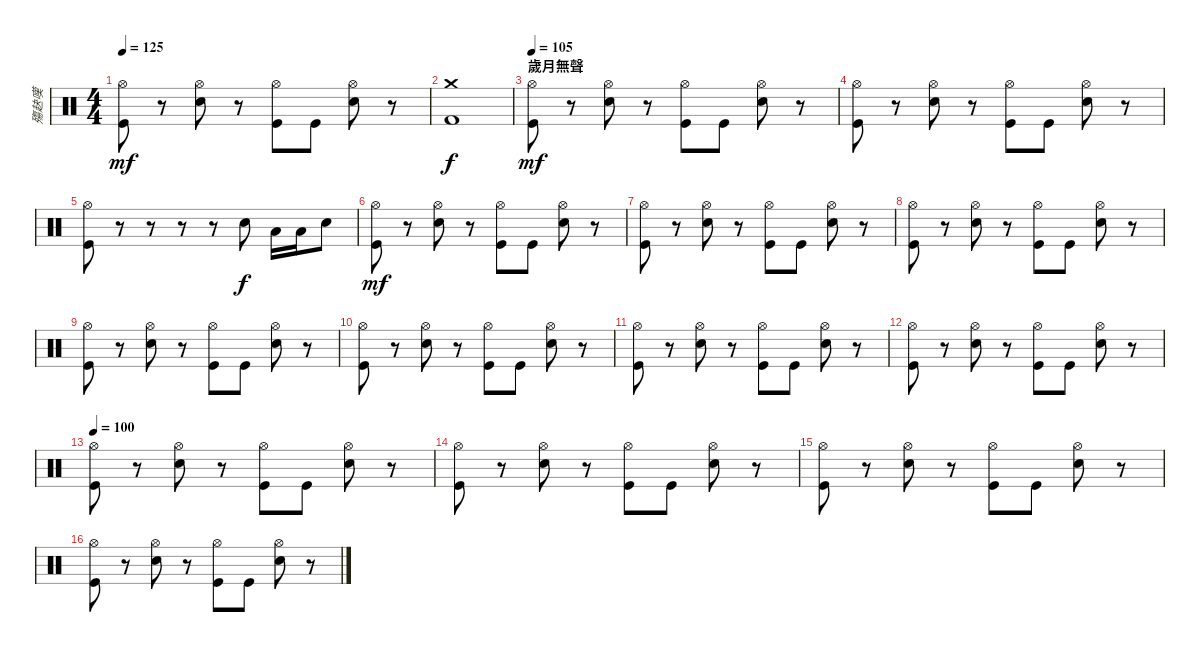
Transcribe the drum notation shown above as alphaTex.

\track ("殤赽嘆" "殤赽嘆") {instrument percussion}
\staff {score}
\articulation defaults
\ts (4 4)
\tempo 125
\clef neutral
\ks c
("Hi-Hat (open)" "Kick (hit)").8{dy mf} r.8 ("Hi-Hat (open)" "Snare (hit) 2").8 r.8 ("Hi-Hat (open)" "Kick (hit)").8 "Kick (hit)".8 ("Hi-Hat (open)" "Snare (hit) 2").8 r.8 |
("Crash medium (hit)" "Kick (hit) 2").1{dy f} |
\section ("" "歲月無聲")
\tempo 100
\tempo 105
("Hi-Hat (open)" "Kick (hit)").8{dy mf} r.8 ("Hi-Hat (open)" "Snare (hit) 2").8 r.8 ("Hi-Hat (open)" "Kick (hit)").8 "Kick (hit)".8 ("Hi-Hat (open)" "Snare (hit) 2").8 r.8 |
("Hi-Hat (open)" "Kick (hit)").8 r.8 ("Hi-Hat (open)" "Snare (hit) 2").8 r.8 ("Hi-Hat (open)" "Kick (hit)").8 "Kick (hit)".8 ("Hi-Hat (open)" "Snare (hit) 2").8 r.8 |
("Hi-Hat (open)" "Kick (hit)").8 r.8 r.8 r.8 r.8 "Snare (hit) 2".8{dy f} "Low Tom (hit)".16 "Low Tom (hit)".16 "Snare (hit) 2".8 |
("Hi-Hat (open)" "Kick (hit)").8{dy mf} r.8 ("Hi-Hat (open)" "Snare (hit) 2").8 r.8 ("Hi-Hat (open)" "Kick (hit)").8 "Kick (hit)".8 ("Hi-Hat (open)" "Snare (hit) 2").8 r.8 |
("Hi-Hat (open)" "Kick (hit)").8 r.8 ("Hi-Hat (open)" "Snare (hit) 2").8 r.8 ("Hi-Hat (open)" "Kick (hit)").8 "Kick (hit)".8 ("Hi-Hat (open)" "Snare (hit) 2").8 r.8 |
("Hi-Hat (open)" "Kick (hit)").8 r.8 ("Hi-Hat (open)" "Snare (hit) 2").8 r.8 ("Hi-Hat (open)" "Kick (hit)").8 "Kick (hit)".8 ("Hi-Hat (open)" "Snare (hit) 2").8 r.8 |
("Hi-Hat (open)" "Kick (hit)").8 r.8 ("Hi-Hat (open)" "Snare (hit) 2").8 r.8 ("Hi-Hat (open)" "Kick (hit)").8 "Kick (hit)".8 ("Hi-Hat (open)" "Snare (hit) 2").8 r.8 |
("Hi-Hat (open)" "Kick (hit)").8 r.8 ("Hi-Hat (open)" "Snare (hit) 2").8 r.8 ("Hi-Hat (open)" "Kick (hit)").8 "Kick (hit)".8 ("Hi-Hat (open)" "Snare (hit) 2").8 r.8 |
("Hi-Hat (open)" "Kick (hit)").8 r.8 ("Hi-Hat (open)" "Snare (hit) 2").8 r.8 ("Hi-Hat (open)" "Kick (hit)").8 "Kick (hit)".8 ("Hi-Hat (open)" "Snare (hit) 2").8 r.8 |
("Hi-Hat (open)" "Kick (hit)").8 r.8 ("Hi-Hat (open)" "Snare (hit) 2").8 r.8 ("Hi-Hat (open)" "Kick (hit)").8 "Kick (hit)".8 ("Hi-Hat (open)" "Snare (hit) 2").8 r.8 |
\tempo 100
("Hi-Hat (open)" "Kick (hit)").8 r.8 ("Hi-Hat (open)" "Snare (hit) 2").8 r.8 ("Hi-Hat (open)" "Kick (hit)").8 "Kick (hit)".8 ("Hi-Hat (open)" "Snare (hit) 2").8 r.8 |
("Hi-Hat (open)" "Kick (hit)").8 r.8 ("Hi-Hat (open)" "Snare (hit) 2").8 r.8 ("Hi-Hat (open)" "Kick (hit)").8 "Kick (hit)".8 ("Hi-Hat (open)" "Snare (hit) 2").8 r.8 |
("Hi-Hat (open)" "Kick (hit)").8 r.8 ("Hi-Hat (open)" "Snare (hit) 2").8 r.8 ("Hi-Hat (open)" "Kick (hit)").8 "Kick (hit)".8 ("Hi-Hat (open)" "Snare (hit) 2").8 r.8 |
("Hi-Hat (open)" "Kick (hit)").8 r.8 ("Hi-Hat (open)" "Snare (hit) 2").8 r.8 ("Hi-Hat (open)" "Kick (hit)").8 "Kick (hit)".8 ("Hi-Hat (open)" "Snare (hit) 2").8 r.8
